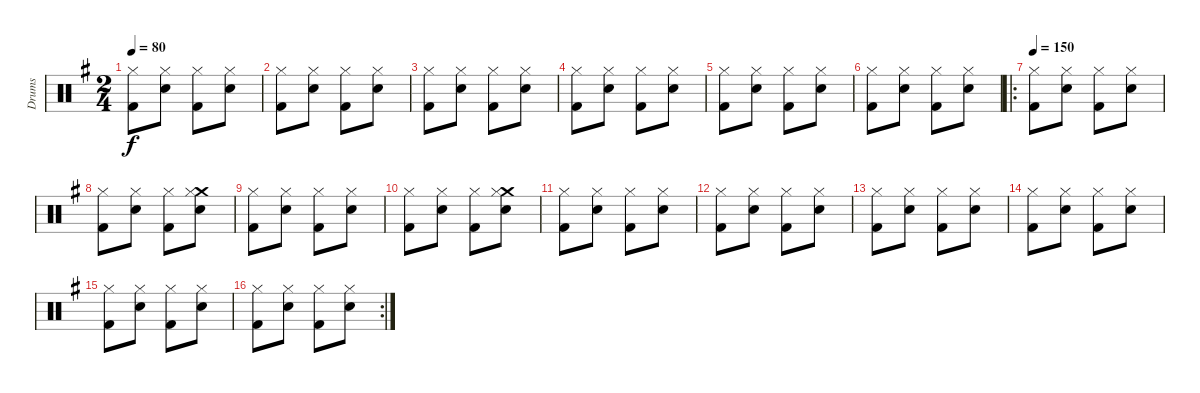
\track ("Drums" "Drums") {instrument percussion}
\staff {score}
\articulation defaults
\ts (2 4)
\tempo 80
\clef neutral
\ks g
("Hi-Hat (closed)" "Kick (hit) 2").8{dy f} ("Hi-Hat (closed)" "Electric Snare (hit)").8 ("Hi-Hat (closed)" "Kick (hit) 2").8 ("Hi-Hat (closed)" "Electric Snare (hit)").8 |
("Hi-Hat (closed)" "Kick (hit) 2").8 ("Hi-Hat (closed)" "Electric Snare (hit)").8 ("Hi-Hat (closed)" "Kick (hit) 2").8 ("Hi-Hat (closed)" "Electric Snare (hit)").8 |
("Hi-Hat (closed)" "Kick (hit) 2").8 ("Hi-Hat (closed)" "Electric Snare (hit)").8 ("Hi-Hat (closed)" "Kick (hit) 2").8 ("Hi-Hat (closed)" "Electric Snare (hit)").8 |
("Hi-Hat (closed)" "Kick (hit) 2").8 ("Hi-Hat (closed)" "Electric Snare (hit)").8 ("Hi-Hat (closed)" "Kick (hit) 2").8 ("Hi-Hat (closed)" "Electric Snare (hit)").8 |
("Hi-Hat (closed)" "Kick (hit) 2").8 ("Hi-Hat (closed)" "Electric Snare (hit)").8 ("Hi-Hat (closed)" "Kick (hit) 2").8 ("Hi-Hat (closed)" "Electric Snare (hit)").8 |
("Hi-Hat (closed)" "Kick (hit) 2").8 ("Hi-Hat (closed)" "Electric Snare (hit)").8 ("Hi-Hat (closed)" "Kick (hit) 2").8 ("Hi-Hat (closed)" "Electric Snare (hit)").8 |
\ro
\tempo 150
("Hi-Hat (closed)" "Kick (hit) 2").8 ("Hi-Hat (closed)" "Electric Snare (hit)").8 ("Hi-Hat (closed)" "Kick (hit) 2").8 ("Hi-Hat (closed)" "Electric Snare (hit)").8 |
("Hi-Hat (closed)" "Kick (hit) 2").8 ("Hi-Hat (closed)" "Electric Snare (hit)").8 ("Hi-Hat (closed)" "Kick (hit) 2").8 ("Crash medium (hit)" "Hi-Hat (closed)" "Electric Snare (hit)").8 |
("Hi-Hat (closed)" "Kick (hit) 2").8 ("Hi-Hat (closed)" "Electric Snare (hit)").8 ("Hi-Hat (closed)" "Kick (hit) 2").8 ("Hi-Hat (closed)" "Electric Snare (hit)").8 |
("Hi-Hat (closed)" "Kick (hit) 2").8 ("Hi-Hat (closed)" "Electric Snare (hit)").8 ("Hi-Hat (closed)" "Kick (hit) 2").8 ("Crash medium (hit)" "Hi-Hat (closed)" "Electric Snare (hit)").8 |
("Hi-Hat (closed)" "Kick (hit) 2").8 ("Hi-Hat (closed)" "Electric Snare (hit)").8 ("Hi-Hat (closed)" "Kick (hit) 2").8 ("Hi-Hat (closed)" "Electric Snare (hit)").8 |
("Hi-Hat (closed)" "Kick (hit) 2").8 ("Hi-Hat (closed)" "Electric Snare (hit)").8 ("Hi-Hat (closed)" "Kick (hit) 2").8 ("Hi-Hat (closed)" "Electric Snare (hit)").8 |
("Hi-Hat (closed)" "Kick (hit) 2").8 ("Hi-Hat (closed)" "Electric Snare (hit)").8 ("Hi-Hat (closed)" "Kick (hit) 2").8 ("Hi-Hat (closed)" "Electric Snare (hit)").8 |
("Hi-Hat (closed)" "Kick (hit) 2").8 ("Hi-Hat (closed)" "Electric Snare (hit)").8 ("Hi-Hat (closed)" "Kick (hit) 2").8 ("Hi-Hat (closed)" "Electric Snare (hit)").8 |
("Hi-Hat (closed)" "Kick (hit) 2").8 ("Hi-Hat (closed)" "Electric Snare (hit)").8 ("Hi-Hat (closed)" "Kick (hit) 2").8 ("Hi-Hat (closed)" "Electric Snare (hit)").8 |
\rc 2
("Hi-Hat (closed)" "Kick (hit) 2").8 ("Hi-Hat (closed)" "Electric Snare (hit)").8 ("Hi-Hat (closed)" "Kick (hit) 2").8 ("Hi-Hat (closed)" "Electric Snare (hit)").8
